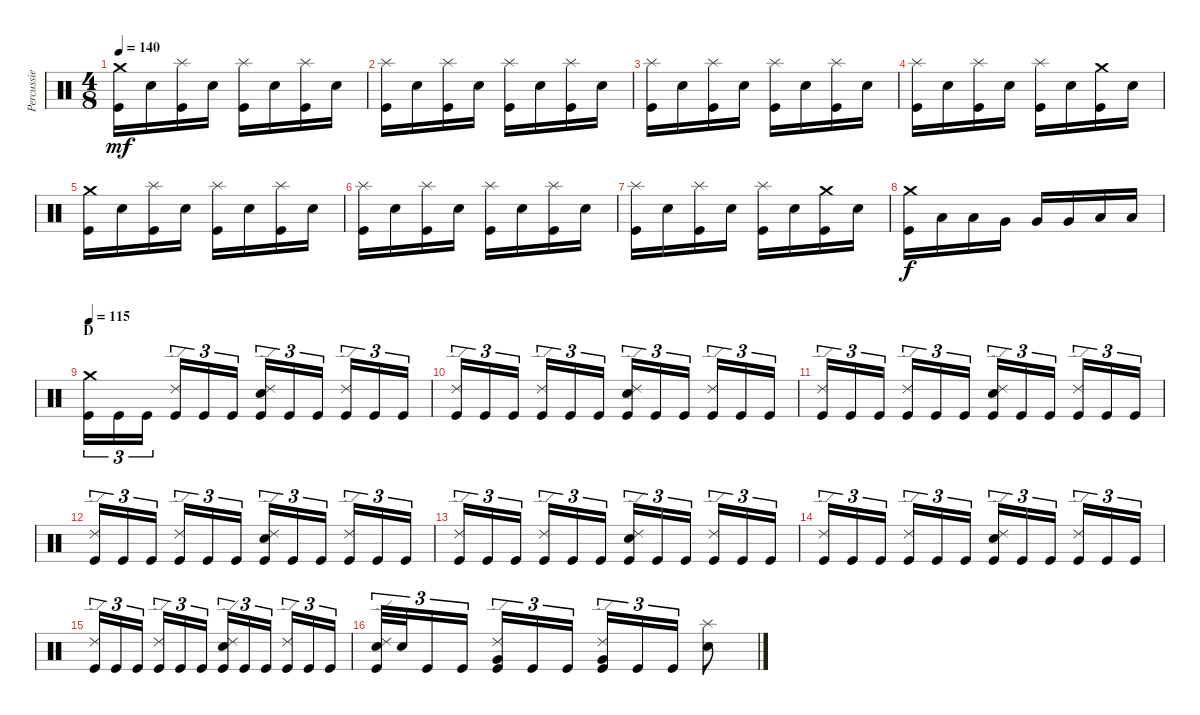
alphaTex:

\track ("Percussie" "Percussie") {instrument percussion}
\staff {score}
\articulation defaults
\ts (4 8)
\tempo 140
\clef neutral
\ks c
("Crash medium (hit)" "Kick (hit)").16{dy mf} "Electric Snare (hit)".16 ("Splash (hit)" "Kick (hit)").16 "Electric Snare (hit)".16 ("Splash (hit)" "Kick (hit)").16 "Electric Snare (hit)".16 ("Splash (hit)" "Kick (hit)").16 "Electric Snare (hit)".16 |
("Splash (hit)" "Kick (hit)").16 "Electric Snare (hit)".16 ("Splash (hit)" "Kick (hit)").16 "Electric Snare (hit)".16 ("Splash (hit)" "Kick (hit)").16 "Electric Snare (hit)".16 ("Splash (hit)" "Kick (hit)").16 "Electric Snare (hit)".16 |
("Splash (hit)" "Kick (hit)").16 "Electric Snare (hit)".16 ("Splash (hit)" "Kick (hit)").16 "Electric Snare (hit)".16 ("Splash (hit)" "Kick (hit)").16 "Electric Snare (hit)".16 ("Splash (hit)" "Kick (hit)").16 "Electric Snare (hit)".16 |
("Splash (hit)" "Kick (hit)").16 "Electric Snare (hit)".16 ("Splash (hit)" "Kick (hit)").16 "Electric Snare (hit)".16 ("Splash (hit)" "Kick (hit)").16 "Electric Snare (hit)".16 ("Crash medium (hit)" "Kick (hit)").16 "Electric Snare (hit)".16 |
("Crash medium (hit)" "Kick (hit)").16 "Electric Snare (hit)".16 ("Splash (hit)" "Kick (hit)").16 "Electric Snare (hit)".16 ("Splash (hit)" "Kick (hit)").16 "Electric Snare (hit)".16 ("Splash (hit)" "Kick (hit)").16 "Electric Snare (hit)".16 |
("Splash (hit)" "Kick (hit)").16 "Electric Snare (hit)".16 ("Splash (hit)" "Kick (hit)").16 "Electric Snare (hit)".16 ("Splash (hit)" "Kick (hit)").16 "Electric Snare (hit)".16 ("Splash (hit)" "Kick (hit)").16 "Electric Snare (hit)".16 |
("Splash (hit)" "Kick (hit)").16 "Electric Snare (hit)".16 ("Splash (hit)" "Kick (hit)").16 "Electric Snare (hit)".16 ("Splash (hit)" "Kick (hit)").16 "Electric Snare (hit)".16 ("Crash medium (hit)" "Kick (hit)").16 "Electric Snare (hit)".16 |
("Crash medium (hit)" "Kick (hit)").16{dy f} "Low Tom (hit)".16 "Low Tom (hit)".16 "Very Low Tom (hit)".16 "Very Low Tom (hit)".16 "Very Low Tom (hit)".16 "Low Floor Tom (hit)".16 "Low Floor Tom (hit)".16 |
\section ("" "D")
\tempo 115
("Crash medium (hit)" "Kick (hit)").16{tu (3 2)} "Kick (hit)".16{tu (3 2)} "Kick (hit)".16{tu (3 2)} ("Ride (edge) 2" "Kick (hit)").16{tu (3 2)} "Kick (hit)".16{tu (3 2)} "Kick (hit)".16{tu (3 2)} ("Ride (edge) 2" "Electric Snare (hit)" "Kick (hit)").16{tu (3 2)} "Kick (hit)".16{tu (3 2)} "Kick (hit)".16{tu (3 2)} ("Ride (edge) 2" "Kick (hit)").16{tu (3 2)} "Kick (hit)".16{tu (3 2)} "Kick (hit)".16{tu (3 2)} |
("Ride (edge) 2" "Kick (hit)").16{tu (3 2)} "Kick (hit)".16{tu (3 2)} "Kick (hit)".16{tu (3 2)} ("Ride (edge) 2" "Kick (hit)").16{tu (3 2)} "Kick (hit)".16{tu (3 2)} "Kick (hit)".16{tu (3 2)} ("Ride (edge) 2" "Electric Snare (hit)" "Kick (hit)").16{tu (3 2)} "Kick (hit)".16{tu (3 2)} "Kick (hit)".16{tu (3 2)} ("Ride (edge) 2" "Kick (hit)").16{tu (3 2)} "Kick (hit)".16{tu (3 2)} "Kick (hit)".16{tu (3 2)} |
("Ride (edge) 2" "Kick (hit)").16{tu (3 2)} "Kick (hit)".16{tu (3 2)} "Kick (hit)".16{tu (3 2)} ("Ride (edge) 2" "Kick (hit)").16{tu (3 2)} "Kick (hit)".16{tu (3 2)} "Kick (hit)".16{tu (3 2)} ("Ride (edge) 2" "Electric Snare (hit)" "Kick (hit)").16{tu (3 2)} "Kick (hit)".16{tu (3 2)} "Kick (hit)".16{tu (3 2)} ("Ride (edge) 2" "Kick (hit)").16{tu (3 2)} "Kick (hit)".16{tu (3 2)} "Kick (hit)".16{tu (3 2)} |
("Ride (edge) 2" "Kick (hit)").16{tu (3 2)} "Kick (hit)".16{tu (3 2)} "Kick (hit)".16{tu (3 2)} ("Ride (edge) 2" "Kick (hit)").16{tu (3 2)} "Kick (hit)".16{tu (3 2)} "Kick (hit)".16{tu (3 2)} ("Ride (edge) 2" "Electric Snare (hit)" "Kick (hit)").16{tu (3 2)} "Kick (hit)".16{tu (3 2)} "Kick (hit)".16{tu (3 2)} ("Ride (edge) 2" "Kick (hit)").16{tu (3 2)} "Kick (hit)".16{tu (3 2)} "Kick (hit)".16{tu (3 2)} |
("Ride (edge) 2" "Kick (hit)").16{tu (3 2)} "Kick (hit)".16{tu (3 2)} "Kick (hit)".16{tu (3 2)} ("Ride (edge) 2" "Kick (hit)").16{tu (3 2)} "Kick (hit)".16{tu (3 2)} "Kick (hit)".16{tu (3 2)} ("Ride (edge) 2" "Electric Snare (hit)" "Kick (hit)").16{tu (3 2)} "Kick (hit)".16{tu (3 2)} "Kick (hit)".16{tu (3 2)} ("Ride (edge) 2" "Kick (hit)").16{tu (3 2)} "Kick (hit)".16{tu (3 2)} "Kick (hit)".16{tu (3 2)} |
("Ride (edge) 2" "Kick (hit)").16{tu (3 2)} "Kick (hit)".16{tu (3 2)} "Kick (hit)".16{tu (3 2)} ("Ride (edge) 2" "Kick (hit)").16{tu (3 2)} "Kick (hit)".16{tu (3 2)} "Kick (hit)".16{tu (3 2)} ("Ride (edge) 2" "Electric Snare (hit)" "Kick (hit)").16{tu (3 2)} "Kick (hit)".16{tu (3 2)} "Kick (hit)".16{tu (3 2)} ("Ride (edge) 2" "Kick (hit)").16{tu (3 2)} "Kick (hit)".16{tu (3 2)} "Kick (hit)".16{tu (3 2)} |
("Ride (edge) 2" "Kick (hit)").16{tu (3 2)} "Kick (hit)".16{tu (3 2)} "Kick (hit)".16{tu (3 2)} ("Ride (edge) 2" "Kick (hit)").16{tu (3 2)} "Kick (hit)".16{tu (3 2)} "Kick (hit)".16{tu (3 2)} ("Ride (edge) 2" "Electric Snare (hit)" "Kick (hit)").16{tu (3 2)} "Kick (hit)".16{tu (3 2)} "Kick (hit)".16{tu (3 2)} ("Ride (edge) 2" "Kick (hit)").16{tu (3 2)} "Kick (hit)".16{tu (3 2)} "Kick (hit)".16{tu (3 2)} |
("Ride (edge) 2" "Electric Snare (hit)" "Kick (hit)").32{tu (3 2)} "Electric Snare (hit)".32{tu (3 2)} "Kick (hit)".16{tu (3 2)} "Kick (hit)".16{tu (3 2)} ("Ride (edge) 2" "Very Low Tom (hit)" "Kick (hit)").16{tu (3 2)} "Kick (hit)".16{tu (3 2)} "Kick (hit)".16{tu (3 2)} ("Ride (edge) 2" "Very Low Tom (hit)" "Kick (hit)").16{tu (3 2)} "Kick (hit)".16{tu (3 2)} "Kick (hit)".16{tu (3 2)} ("Splash (hit)" "Electric Snare (hit)").8
